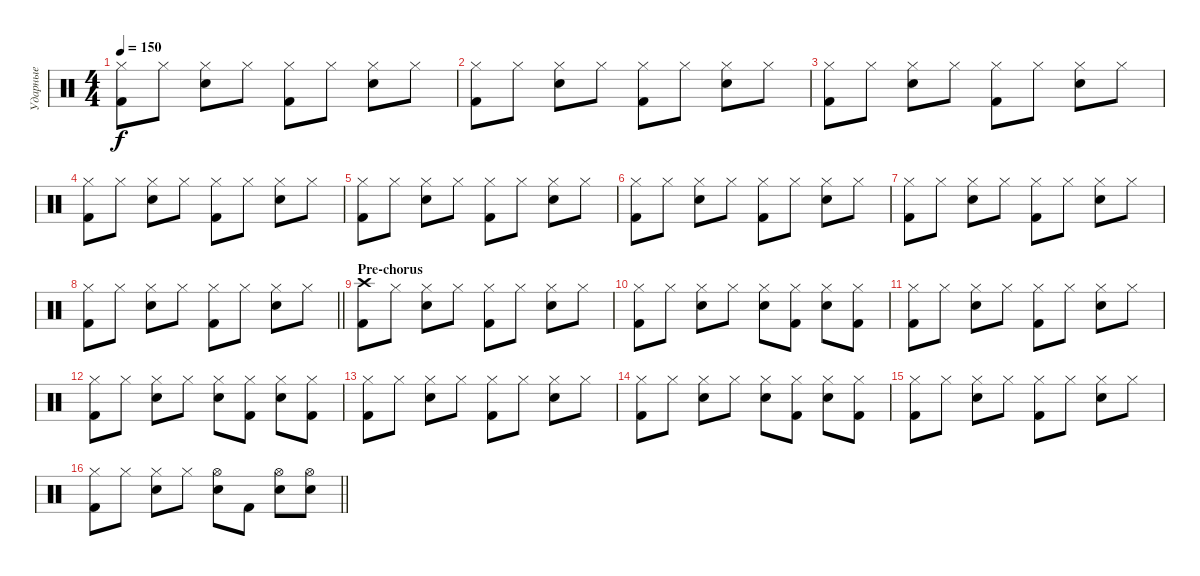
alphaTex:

\track ("Ударные" "Ударные") {instrument percussion}
\staff {score}
\articulation defaults
\ts (4 4)
\tempo 150
\clef neutral
\ks c
("Hi-Hat (closed)" "Kick (hit) 2").8{dy f} "Hi-Hat (closed)".8 ("Hi-Hat (closed)" "Electric Snare (hit)").8 "Hi-Hat (closed)".8 ("Hi-Hat (closed)" "Kick (hit) 2").8 "Hi-Hat (closed)".8 ("Hi-Hat (closed)" "Electric Snare (hit)").8 "Hi-Hat (closed)".8 |
("Hi-Hat (closed)" "Kick (hit) 2").8 "Hi-Hat (closed)".8 ("Hi-Hat (closed)" "Electric Snare (hit)").8 "Hi-Hat (closed)".8 ("Hi-Hat (closed)" "Kick (hit) 2").8 "Hi-Hat (closed)".8 ("Hi-Hat (closed)" "Electric Snare (hit)").8 "Hi-Hat (closed)".8 |
("Hi-Hat (closed)" "Kick (hit) 2").8 "Hi-Hat (closed)".8 ("Hi-Hat (closed)" "Electric Snare (hit)").8 "Hi-Hat (closed)".8 ("Hi-Hat (closed)" "Kick (hit) 2").8 "Hi-Hat (closed)".8 ("Hi-Hat (closed)" "Electric Snare (hit)").8 "Hi-Hat (closed)".8 |
("Hi-Hat (closed)" "Kick (hit) 2").8 "Hi-Hat (closed)".8 ("Hi-Hat (closed)" "Electric Snare (hit)").8 "Hi-Hat (closed)".8 ("Hi-Hat (closed)" "Kick (hit) 2").8 "Hi-Hat (closed)".8 ("Hi-Hat (closed)" "Electric Snare (hit)").8 "Hi-Hat (closed)".8 |
("Hi-Hat (closed)" "Kick (hit) 2").8 "Hi-Hat (closed)".8 ("Hi-Hat (closed)" "Electric Snare (hit)").8 "Hi-Hat (closed)".8 ("Hi-Hat (closed)" "Kick (hit) 2").8 "Hi-Hat (closed)".8 ("Hi-Hat (closed)" "Electric Snare (hit)").8 "Hi-Hat (closed)".8 |
("Hi-Hat (closed)" "Kick (hit) 2").8 "Hi-Hat (closed)".8 ("Hi-Hat (closed)" "Electric Snare (hit)").8 "Hi-Hat (closed)".8 ("Hi-Hat (closed)" "Kick (hit) 2").8 "Hi-Hat (closed)".8 ("Hi-Hat (closed)" "Electric Snare (hit)").8 "Hi-Hat (closed)".8 |
("Hi-Hat (closed)" "Kick (hit) 2").8 "Hi-Hat (closed)".8 ("Hi-Hat (closed)" "Electric Snare (hit)").8 "Hi-Hat (closed)".8 ("Hi-Hat (closed)" "Kick (hit) 2").8 "Hi-Hat (closed)".8 ("Hi-Hat (closed)" "Electric Snare (hit)").8 "Hi-Hat (closed)".8 |
\barLineRight lightlight
("Hi-Hat (closed)" "Kick (hit) 2").8 "Hi-Hat (closed)".8 ("Hi-Hat (closed)" "Electric Snare (hit)").8 "Hi-Hat (closed)".8 ("Hi-Hat (closed)" "Kick (hit) 2").8 "Hi-Hat (closed)".8 ("Hi-Hat (closed)" "Electric Snare (hit)").8 "Hi-Hat (closed)".8 |
\section ("" "Pre-chorus")
("Crash high (hit)" "Kick (hit) 2").8 "Hi-Hat (closed)".8 ("Hi-Hat (closed)" "Electric Snare (hit)").8 "Hi-Hat (closed)".8 ("Hi-Hat (closed)" "Kick (hit) 2").8 "Hi-Hat (closed)".8 ("Hi-Hat (closed)" "Electric Snare (hit)").8 "Hi-Hat (closed)".8 |
("Hi-Hat (closed)" "Kick (hit) 2").8 "Hi-Hat (closed)".8 ("Hi-Hat (closed)" "Electric Snare (hit)").8 "Hi-Hat (closed)".8 ("Hi-Hat (closed)" "Electric Snare (hit)").8 ("Hi-Hat (closed)" "Kick (hit) 2").8 ("Hi-Hat (closed)" "Electric Snare (hit)").8 ("Hi-Hat (closed)" "Kick (hit) 2").8 |
("Hi-Hat (closed)" "Kick (hit) 2").8 "Hi-Hat (closed)".8 ("Hi-Hat (closed)" "Electric Snare (hit)").8 "Hi-Hat (closed)".8 ("Hi-Hat (closed)" "Kick (hit) 2").8 "Hi-Hat (closed)".8 ("Hi-Hat (closed)" "Electric Snare (hit)").8 "Hi-Hat (closed)".8 |
("Hi-Hat (closed)" "Kick (hit) 2").8 "Hi-Hat (closed)".8 ("Hi-Hat (closed)" "Electric Snare (hit)").8 "Hi-Hat (closed)".8 ("Hi-Hat (closed)" "Electric Snare (hit)").8 ("Hi-Hat (closed)" "Kick (hit) 2").8 ("Hi-Hat (closed)" "Electric Snare (hit)").8 ("Hi-Hat (closed)" "Kick (hit) 2").8 |
("Hi-Hat (closed)" "Kick (hit) 2").8 "Hi-Hat (closed)".8 ("Hi-Hat (closed)" "Electric Snare (hit)").8 "Hi-Hat (closed)".8 ("Hi-Hat (closed)" "Kick (hit) 2").8 "Hi-Hat (closed)".8 ("Hi-Hat (closed)" "Electric Snare (hit)").8 "Hi-Hat (closed)".8 |
("Hi-Hat (closed)" "Kick (hit) 2").8 "Hi-Hat (closed)".8 ("Hi-Hat (closed)" "Electric Snare (hit)").8 "Hi-Hat (closed)".8 ("Hi-Hat (closed)" "Electric Snare (hit)").8 ("Hi-Hat (closed)" "Kick (hit) 2").8 ("Hi-Hat (closed)" "Electric Snare (hit)").8 ("Hi-Hat (closed)" "Kick (hit) 2").8 |
("Hi-Hat (closed)" "Kick (hit) 2").8 "Hi-Hat (closed)".8 ("Hi-Hat (closed)" "Electric Snare (hit)").8 "Hi-Hat (closed)".8 ("Hi-Hat (closed)" "Kick (hit) 2").8 "Hi-Hat (closed)".8 ("Hi-Hat (closed)" "Electric Snare (hit)").8 "Hi-Hat (closed)".8 |
\barLineRight lightlight
("Hi-Hat (closed)" "Kick (hit) 2").8 "Hi-Hat (closed)".8 ("Hi-Hat (closed)" "Electric Snare (hit)").8 "Hi-Hat (closed)".8 ("Hi-Hat (open)" "Electric Snare (hit)").8 "Kick (hit) 2".8 ("Hi-Hat (open)" "Electric Snare (hit)").8 ("Hi-Hat (open)" "Electric Snare (hit)").8
